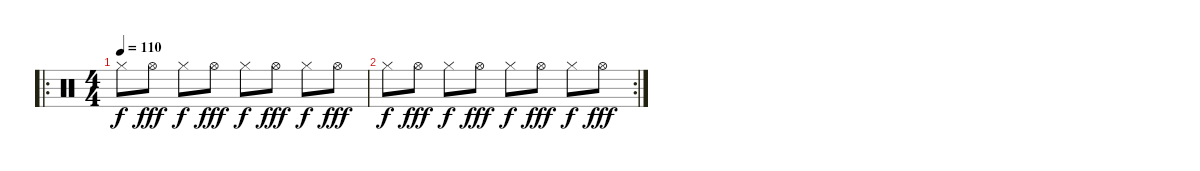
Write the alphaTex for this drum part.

\track "" {instrument percussion}
\staff {score}
\articulation defaults
\ro
\ts (4 4)
\tempo 110
\clef neutral
\ks c "Hi-Hat (closed)".8{dy f} "Hi-Hat (open)".8{dy fff} "Hi-Hat (closed)".8{dy f} "Hi-Hat (open)".8{dy fff} "Hi-Hat (closed)".8{dy f} "Hi-Hat (open)".8{dy fff} "Hi-Hat (closed)".8{dy f} "Hi-Hat (open)".8{dy fff}
|
\rc 2 "Hi-Hat (closed)".8{dy f} "Hi-Hat (open)".8{dy fff} "Hi-Hat (closed)".8{dy f} "Hi-Hat (open)".8{dy fff} "Hi-Hat (closed)".8{dy f} "Hi-Hat (open)".8{dy fff} "Hi-Hat (closed)".8{dy f} "Hi-Hat (open)".8{dy fff}
